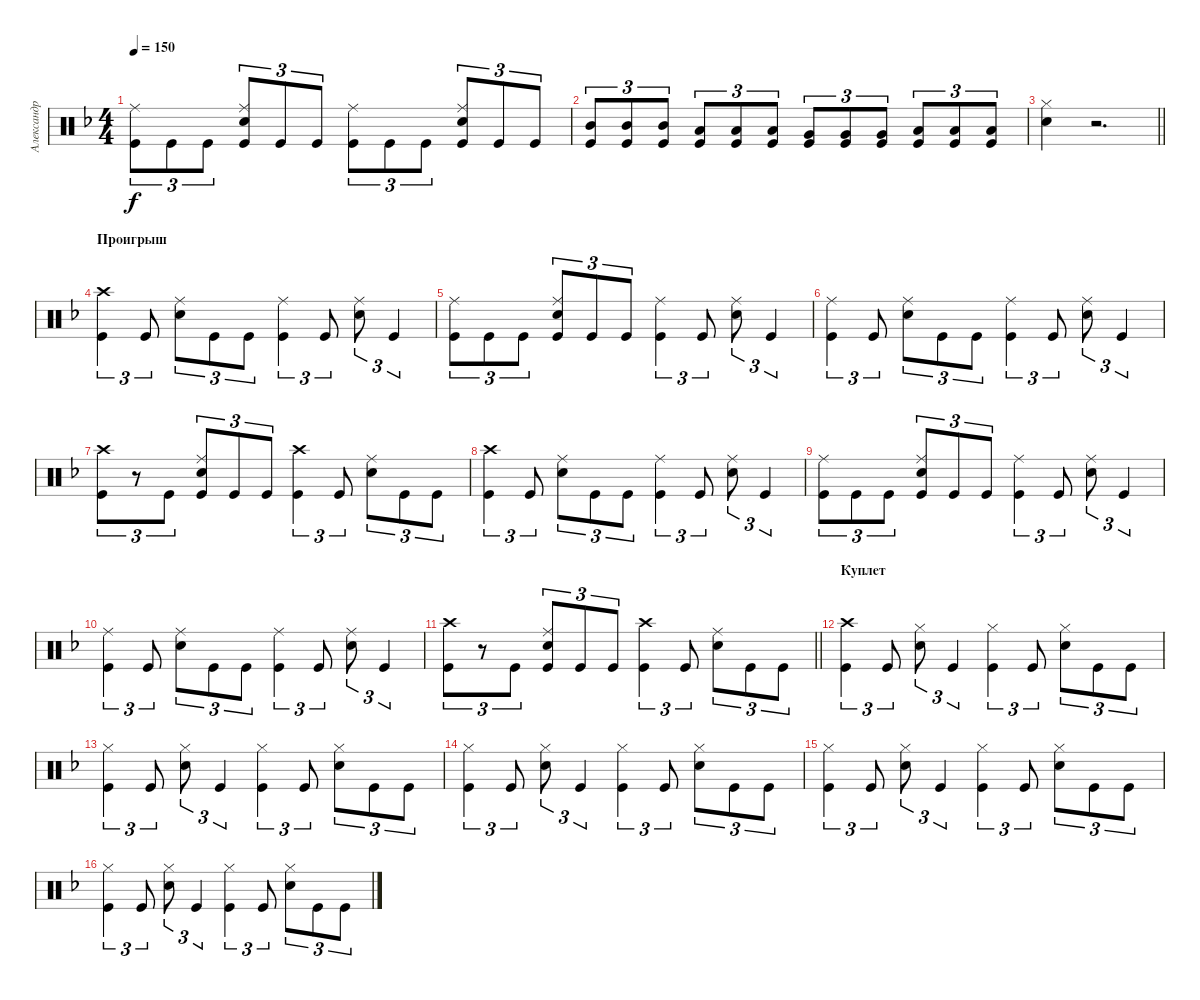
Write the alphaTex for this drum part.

\track ("Александр Манякин" "Александр ") {instrument percussion}
\staff {score}
\articulation defaults
\ts (4 4)
\tempo 150
\clef neutral
\ks dminor
("Kick (hit)" "Ride (middle)").8{tu (3 2) dy f} "Kick (hit)".8{tu (3 2)} "Kick (hit)".8{tu (3 2)} ("Snare (hit) 2" "Kick (hit)" "Ride (middle)").8{tu (3 2)} "Kick (hit)".8{tu (3 2)} "Kick (hit)".8{tu (3 2)} ("Kick (hit)" "Ride (middle)").8{tu (3 2)} "Kick (hit)".8{tu (3 2)} "Kick (hit)".8{tu (3 2)} ("Kick (hit)" "Snare (hit) 2" "Ride (middle)").8{tu (3 2)} "Kick (hit)".8{tu (3 2)} "Kick (hit)".8{tu (3 2)} |
("Mid Tom (hit)" "Kick (hit)").8{tu (3 2)} ("Mid Tom (hit)" "Kick (hit)").8{tu (3 2)} ("Mid Tom (hit)" "Kick (hit)").8{tu (3 2)} ("Low Tom (hit)" "Kick (hit)").8{tu (3 2)} ("Low Tom (hit)" "Kick (hit)").8{tu (3 2)} ("Low Tom (hit)" "Kick (hit)").8{tu (3 2)} ("Very Low Tom (hit)" "Kick (hit)").8{tu (3 2)} ("Kick (hit)" "Very Low Tom (hit)").8{tu (3 2)} ("Very Low Tom (hit)" "Kick (hit)").8{tu (3 2)} ("Low Floor Tom (hit)" "Kick (hit)").8{tu (3 2)} ("Low Floor Tom (hit)" "Kick (hit)").8{tu (3 2)} ("Low Floor Tom (hit)" "Kick (hit)").8{tu (3 2)} |
\barLineRight lightlight
("Snare (hit) 2" "Hi-Hat (closed)").4 r.2{d} |
\section ("" "Проигрыш")
("Kick (hit)" "Crash high (hit)").4{tu (3 2)} "Kick (hit)".8{tu (3 2)} ("Snare (hit) 2" "Ride (middle)").8{tu (3 2)} "Kick (hit)".8{tu (3 2)} "Kick (hit)".8{tu (3 2)} ("Kick (hit)" "Ride (middle)").4{tu (3 2)} "Kick (hit)".8{tu (3 2)} ("Snare (hit) 2" "Ride (middle)").8{tu (3 2)} "Kick (hit)".4{tu (3 2)} |
("Kick (hit)" "Ride (middle)").8{tu (3 2)} "Kick (hit)".8{tu (3 2)} "Kick (hit)".8{tu (3 2)} ("Kick (hit)" "Snare (hit) 2" "Ride (middle)").8{tu (3 2)} "Kick (hit)".8{tu (3 2)} "Kick (hit)".8{tu (3 2)} ("Kick (hit)" "Ride (middle)").4{tu (3 2)} "Kick (hit)".8{tu (3 2)} ("Snare (hit) 2" "Ride (middle)").8{tu (3 2)} "Kick (hit)".4{tu (3 2)} |
("Kick (hit)" "Ride (middle)").4{tu (3 2)} "Kick (hit)".8{tu (3 2)} ("Snare (hit) 2" "Ride (middle)").8{tu (3 2)} "Kick (hit)".8{tu (3 2)} "Kick (hit)".8{tu (3 2)} ("Kick (hit)" "Ride (middle)").4{tu (3 2)} "Kick (hit)".8{tu (3 2)} ("Snare (hit) 2" "Ride (middle)").8{tu (3 2)} "Kick (hit)".4{tu (3 2)} |
("Kick (hit)" "Crash high (hit)").8{tu (3 2)} r.8{tu (3 2)} "Kick (hit)".8{tu (3 2)} ("Kick (hit)" "Snare (hit) 2" "Ride (middle)").8{tu (3 2)} "Kick (hit)".8{tu (3 2)} "Kick (hit)".8{tu (3 2)} ("Kick (hit)" "Crash high (hit)").4{tu (3 2)} "Kick (hit)".8{tu (3 2)} ("Snare (hit) 2" "Ride (middle)").8{tu (3 2)} "Kick (hit)".8{tu (3 2)} "Kick (hit)".8{tu (3 2)} |
("Kick (hit)" "Crash high (hit)").4{tu (3 2)} "Kick (hit)".8{tu (3 2)} ("Snare (hit) 2" "Ride (middle)").8{tu (3 2)} "Kick (hit)".8{tu (3 2)} "Kick (hit)".8{tu (3 2)} ("Kick (hit)" "Ride (middle)").4{tu (3 2)} "Kick (hit)".8{tu (3 2)} ("Snare (hit) 2" "Ride (middle)").8{tu (3 2)} "Kick (hit)".4{tu (3 2)} |
("Kick (hit)" "Ride (middle)").8{tu (3 2)} "Kick (hit)".8{tu (3 2)} "Kick (hit)".8{tu (3 2)} ("Kick (hit)" "Snare (hit) 2" "Ride (middle)").8{tu (3 2)} "Kick (hit)".8{tu (3 2)} "Kick (hit)".8{tu (3 2)} ("Kick (hit)" "Ride (middle)").4{tu (3 2)} "Kick (hit)".8{tu (3 2)} ("Snare (hit) 2" "Ride (middle)").8{tu (3 2)} "Kick (hit)".4{tu (3 2)} |
("Kick (hit)" "Ride (middle)").4{tu (3 2)} "Kick (hit)".8{tu (3 2)} ("Snare (hit) 2" "Ride (middle)").8{tu (3 2)} "Kick (hit)".8{tu (3 2)} "Kick (hit)".8{tu (3 2)} ("Kick (hit)" "Ride (middle)").4{tu (3 2)} "Kick (hit)".8{tu (3 2)} ("Snare (hit) 2" "Ride (middle)").8{tu (3 2)} "Kick (hit)".4{tu (3 2)} |
\barLineRight lightlight
("Kick (hit)" "Crash high (hit)").8{tu (3 2)} r.8{tu (3 2)} "Kick (hit)".8{tu (3 2)} ("Kick (hit)" "Snare (hit) 2" "Ride (middle)").8{tu (3 2)} "Kick (hit)".8{tu (3 2)} "Kick (hit)".8{tu (3 2)} ("Kick (hit)" "Crash high (hit)").4{tu (3 2)} "Kick (hit)".8{tu (3 2)} ("Snare (hit) 2" "Ride (middle)").8{tu (3 2)} "Kick (hit)".8{tu (3 2)} "Kick (hit)".8{tu (3 2)} |
\section ("" "Куплет")
("Kick (hit)" "Crash high (hit)").4{tu (3 2)} "Kick (hit)".8{tu (3 2)} ("Snare (hit) 2" "Hi-Hat (closed)").8{tu (3 2)} "Kick (hit)".4{tu (3 2)} ("Kick (hit)" "Hi-Hat (closed)").4{tu (3 2)} "Kick (hit)".8{tu (3 2)} ("Snare (hit) 2" "Hi-Hat (closed)").8{tu (3 2)} "Kick (hit)".8{tu (3 2)} "Kick (hit)".8{tu (3 2)} |
("Kick (hit)" "Hi-Hat (closed)").4{tu (3 2)} "Kick (hit)".8{tu (3 2)} ("Snare (hit) 2" "Hi-Hat (closed)").8{tu (3 2)} "Kick (hit)".4{tu (3 2)} ("Kick (hit)" "Hi-Hat (closed)").4{tu (3 2)} "Kick (hit)".8{tu (3 2)} ("Snare (hit) 2" "Hi-Hat (closed)").8{tu (3 2)} "Kick (hit)".8{tu (3 2)} "Kick (hit)".8{tu (3 2)} |
("Kick (hit)" "Hi-Hat (closed)").4{tu (3 2)} "Kick (hit)".8{tu (3 2)} ("Snare (hit) 2" "Hi-Hat (closed)").8{tu (3 2)} "Kick (hit)".4{tu (3 2)} ("Kick (hit)" "Hi-Hat (closed)").4{tu (3 2)} "Kick (hit)".8{tu (3 2)} ("Snare (hit) 2" "Hi-Hat (closed)").8{tu (3 2)} "Kick (hit)".8{tu (3 2)} "Kick (hit)".8{tu (3 2)} |
("Kick (hit)" "Hi-Hat (closed)").4{tu (3 2)} "Kick (hit)".8{tu (3 2)} ("Snare (hit) 2" "Hi-Hat (closed)").8{tu (3 2)} "Kick (hit)".4{tu (3 2)} ("Kick (hit)" "Hi-Hat (closed)").4{tu (3 2)} "Kick (hit)".8{tu (3 2)} ("Snare (hit) 2" "Hi-Hat (closed)").8{tu (3 2)} "Kick (hit)".8{tu (3 2)} "Kick (hit)".8{tu (3 2)} |
("Kick (hit)" "Hi-Hat (closed)").4{tu (3 2)} "Kick (hit)".8{tu (3 2)} ("Snare (hit) 2" "Hi-Hat (closed)").8{tu (3 2)} "Kick (hit)".4{tu (3 2)} ("Kick (hit)" "Hi-Hat (closed)").4{tu (3 2)} "Kick (hit)".8{tu (3 2)} ("Snare (hit) 2" "Hi-Hat (closed)").8{tu (3 2)} "Kick (hit)".8{tu (3 2)} "Kick (hit)".8{tu (3 2)}
